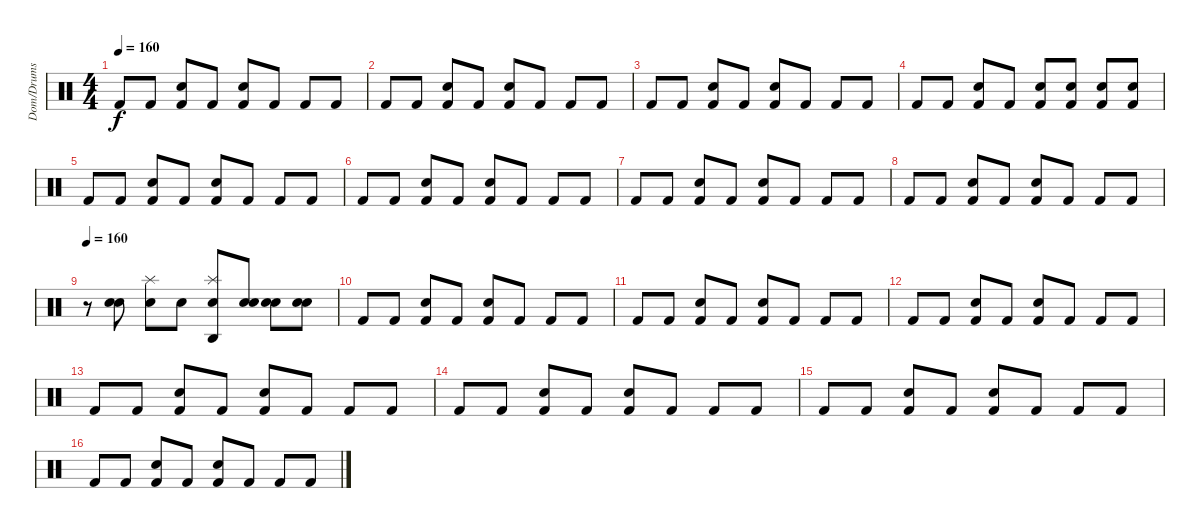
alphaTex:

\track ("Dom/Drums" "Dom/Drums") {instrument percussion}
\staff {score}
\articulation defaults
\ts (4 4)
\tempo 160
\clef neutral
\ks c "Kick (hit) 2".8{dy f} "Kick (hit) 2".8
("Electric Snare (hit)" "Kick (hit) 2").8 "Kick (hit) 2".8 ("Electric Snare (hit)" "Kick (hit) 2").8 "Kick (hit) 2".8 "Kick (hit) 2".8 "Kick (hit) 2".8 |
"Kick (hit) 2".8 "Kick (hit) 2".8 ("Electric Snare (hit)" "Kick (hit) 2").8 "Kick (hit) 2".8 ("Electric Snare (hit)" "Kick (hit) 2").8 "Kick (hit) 2".8 "Kick (hit) 2".8 "Kick (hit) 2".8 |
"Kick (hit) 2".8 "Kick (hit) 2".8 ("Electric Snare (hit)" "Kick (hit) 2").8 "Kick (hit) 2".8 ("Electric Snare (hit)" "Kick (hit) 2").8 "Kick (hit) 2".8 "Kick (hit) 2".8 "Kick (hit) 2".8 |
"Kick (hit) 2".8 "Kick (hit) 2".8 ("Electric Snare (hit)" "Kick (hit) 2").8 "Kick (hit) 2".8 ("Electric Snare (hit)" "Kick (hit) 2").8 ("Electric Snare (hit)" "Kick (hit) 2").8 ("Electric Snare (hit)" "Kick (hit) 2").8 ("Electric Snare (hit)" "Kick (hit) 2").8 |
"Kick (hit) 2".8 "Kick (hit) 2".8 ("Electric Snare (hit)" "Kick (hit) 2").8 "Kick (hit) 2".8 ("Electric Snare (hit)" "Kick (hit) 2").8 "Kick (hit) 2".8 "Kick (hit) 2".8 "Kick (hit) 2".8 |
"Kick (hit) 2".8 "Kick (hit) 2".8 ("Electric Snare (hit)" "Kick (hit) 2").8 "Kick (hit) 2".8 ("Electric Snare (hit)" "Kick (hit) 2").8 "Kick (hit) 2".8 "Kick (hit) 2".8 "Kick (hit) 2".8 |
"Kick (hit) 2".8 "Kick (hit) 2".8 ("Electric Snare (hit)" "Kick (hit) 2").8 "Kick (hit) 2".8 ("Electric Snare (hit)" "Kick (hit) 2").8 "Kick (hit) 2".8 "Kick (hit) 2".8 "Kick (hit) 2".8 |
"Kick (hit) 2".8 "Kick (hit) 2".8 ("Electric Snare (hit)" "Kick (hit) 2").8 "Kick (hit) 2".8 ("Electric Snare (hit)" "Kick (hit) 2").8 "Kick (hit) 2".8 "Kick (hit) 2".8 "Kick (hit) 2".8 |
\tempo 160
r.8 ("Snare (hit) 2" "Electric Snare (hit)").8 ("Splash (hit)" "Electric Snare (hit)").8 "Electric Snare (hit)".8 ("Splash (hit)" "Electric Snare (hit)" "Agogo high (hit)").8 ("Snare (hit) 2" "Electric Snare (hit)").8 ("Snare (hit) 2" "Electric Snare (hit)").8 ("Snare (hit) 2" "Electric Snare (hit)").8 |
"Kick (hit) 2".8 "Kick (hit) 2".8 ("Electric Snare (hit)" "Kick (hit) 2").8 "Kick (hit) 2".8 ("Electric Snare (hit)" "Kick (hit) 2").8 "Kick (hit) 2".8 "Kick (hit) 2".8 "Kick (hit) 2".8 |
"Kick (hit) 2".8 "Kick (hit) 2".8 ("Electric Snare (hit)" "Kick (hit) 2").8 "Kick (hit) 2".8 ("Electric Snare (hit)" "Kick (hit) 2").8 "Kick (hit) 2".8 "Kick (hit) 2".8 "Kick (hit) 2".8 |
"Kick (hit) 2".8 "Kick (hit) 2".8 ("Electric Snare (hit)" "Kick (hit) 2").8 "Kick (hit) 2".8 ("Electric Snare (hit)" "Kick (hit) 2").8 "Kick (hit) 2".8 "Kick (hit) 2".8 "Kick (hit) 2".8 |
"Kick (hit) 2".8 "Kick (hit) 2".8 ("Electric Snare (hit)" "Kick (hit) 2").8 "Kick (hit) 2".8 ("Electric Snare (hit)" "Kick (hit) 2").8 "Kick (hit) 2".8 "Kick (hit) 2".8 "Kick (hit) 2".8 |
"Kick (hit) 2".8 "Kick (hit) 2".8 ("Electric Snare (hit)" "Kick (hit) 2").8 "Kick (hit) 2".8 ("Electric Snare (hit)" "Kick (hit) 2").8 "Kick (hit) 2".8 "Kick (hit) 2".8 "Kick (hit) 2".8 |
"Kick (hit) 2".8 "Kick (hit) 2".8 ("Electric Snare (hit)" "Kick (hit) 2").8 "Kick (hit) 2".8 ("Electric Snare (hit)" "Kick (hit) 2").8 "Kick (hit) 2".8 "Kick (hit) 2".8 "Kick (hit) 2".8 |
"Kick (hit) 2".8 "Kick (hit) 2".8 ("Electric Snare (hit)" "Kick (hit) 2").8 "Kick (hit) 2".8 ("Electric Snare (hit)" "Kick (hit) 2").8 "Kick (hit) 2".8 "Kick (hit) 2".8 "Kick (hit) 2".8
